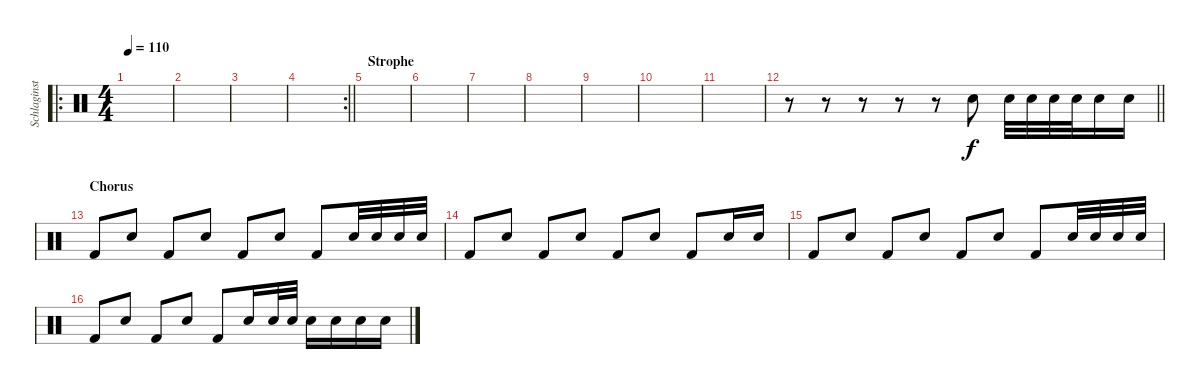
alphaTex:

\track ("Schlaginstrumente - Auswahl" "Schlaginst") {instrument percussion}
\staff {score}
\articulation defaults
\ro
\ts (4 4)
\tempo 110
\clef neutral
\ks c
|
|
|
\rc 2
\barLineRight lightlight
|
\section ("" "Strophe")
|
|
|
|
|
|
|
\barLineRight lightlight
r.8 r.8 r.8 r.8 r.8 "Electric Snare (hit)".8 "Electric Snare (hit)".32 "Electric Snare (hit)".32 "Electric Snare (hit)".32 "Electric Snare (hit)".32 "Electric Snare (hit)".16 "Electric Snare (hit)".16 |
\section ("" "Chorus")
"Kick (hit) 2".8 "Electric Snare (hit)".8 "Kick (hit) 2".8 "Electric Snare (hit)".8 "Kick (hit) 2".8 "Electric Snare (hit)".8 "Kick (hit) 2".8 "Electric Snare (hit)".32 "Electric Snare (hit)".32 "Electric Snare (hit)".32 "Electric Snare (hit)".32 |
"Kick (hit) 2".8 "Electric Snare (hit)".8 "Kick (hit) 2".8 "Electric Snare (hit)".8 "Kick (hit) 2".8 "Electric Snare (hit)".8 "Kick (hit) 2".8 "Electric Snare (hit)".16 "Electric Snare (hit)".16 |
"Kick (hit) 2".8 "Electric Snare (hit)".8 "Kick (hit) 2".8 "Electric Snare (hit)".8 "Kick (hit) 2".8 "Electric Snare (hit)".8 "Kick (hit) 2".8 "Electric Snare (hit)".32 "Electric Snare (hit)".32 "Electric Snare (hit)".32 "Electric Snare (hit)".32 |
"Kick (hit) 2".8 "Electric Snare (hit)".8 "Kick (hit) 2".8 "Electric Snare (hit)".8 "Kick (hit) 2".8 "Electric Snare (hit)".16 "Electric Snare (hit)".32 "Electric Snare (hit)".32 "Electric Snare (hit)".16 "Electric Snare (hit)".16 "Electric Snare (hit)".16 "Electric Snare (hit)".16
